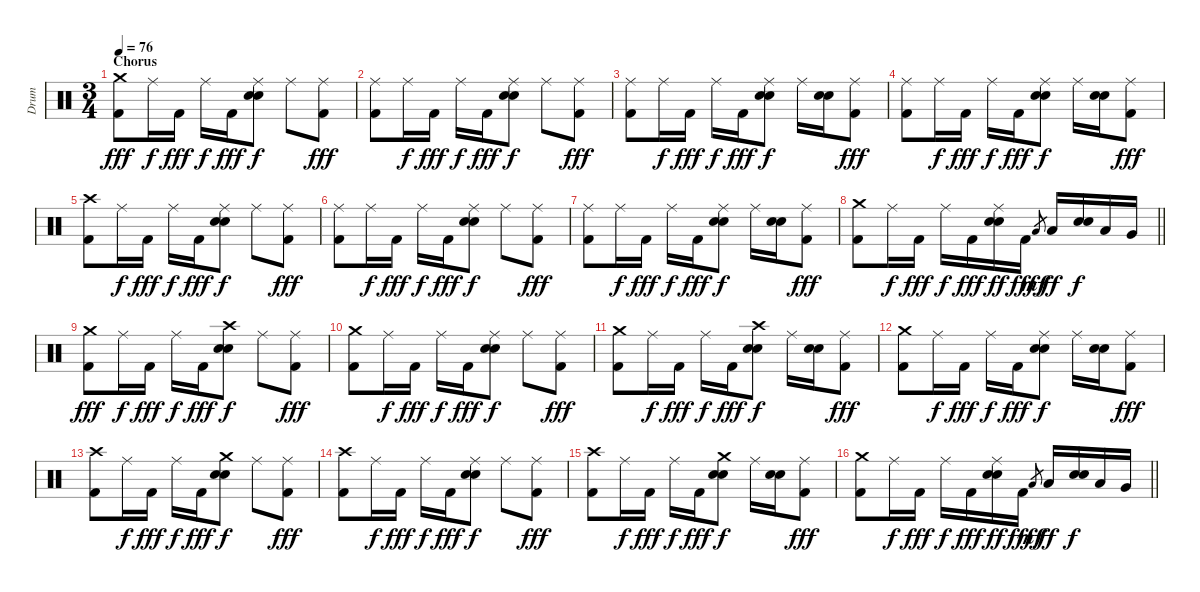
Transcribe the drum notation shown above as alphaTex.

\track ("Drum" "Drum") {instrument percussion}
\staff {score}
\articulation defaults
\ts (3 4)
\section ("" "Chorus")
\tempo 76
\clef neutral
\ks c
("Crash medium (hit)" "Kick (hit) 2").8{dy fff} "Ride (middle)".16{dy f} "Kick (hit) 2".16{dy fff} "Ride (middle)".16{dy f} "Kick (hit) 2".16{dy fff} ("Ride (middle)" "Snare (hit) 2" "Electric Snare (hit)").8{dy f} "Ride (middle)".8 ("Ride (middle)" "Kick (hit) 2").8{dy fff} |
("Ride (middle)" "Kick (hit) 2").8 "Ride (middle)".16{dy f} "Kick (hit) 2".16{dy fff} "Ride (middle)".16{dy f} "Kick (hit) 2".16{dy fff} ("Ride (middle)" "Snare (hit) 2" "Electric Snare (hit)").8{dy f} "Ride (middle)".8 ("Ride (middle)" "Kick (hit) 2").8{dy fff} |
("Ride (middle)" "Kick (hit) 2").8 "Ride (middle)".16{dy f} "Kick (hit) 2".16{dy fff} "Ride (middle)".16{dy f} "Kick (hit) 2".16{dy fff} ("Ride (middle)" "Snare (hit) 2" "Electric Snare (hit)").8{dy f} "Ride (middle)".16 ("Snare (hit) 2" "Electric Snare (hit)").16 ("Ride (middle)" "Kick (hit) 2").8{dy fff} |
("Ride (middle)" "Kick (hit) 2").8 "Ride (middle)".16{dy f} "Kick (hit) 2".16{dy fff} "Ride (middle)".16{dy f} "Kick (hit) 2".16{dy fff} ("Ride (middle)" "Snare (hit) 2" "Electric Snare (hit)").8{dy f} "Ride (middle)".16 ("Snare (hit) 2" "Electric Snare (hit)").16 ("Ride (middle)" "Kick (hit) 2").8{dy fff} |
("Crash high (hit)" "Kick (hit) 2").8 "Ride (middle)".16{dy f} "Kick (hit) 2".16{dy fff} "Ride (middle)".16{dy f} "Kick (hit) 2".16{dy fff} ("Ride (middle)" "Snare (hit) 2" "Electric Snare (hit)").8{dy f} "Ride (middle)".8 ("Ride (middle)" "Kick (hit) 2").8{dy fff} |
("Ride (middle)" "Kick (hit) 2").8 "Ride (middle)".16{dy f} "Kick (hit) 2".16{dy fff} "Ride (middle)".16{dy f} "Kick (hit) 2".16{dy fff} ("Ride (middle)" "Snare (hit) 2" "Electric Snare (hit)").8{dy f} "Ride (middle)".8 ("Ride (middle)" "Kick (hit) 2").8{dy fff} |
("Ride (middle)" "Kick (hit) 2").8 "Ride (middle)".16{dy f} "Kick (hit) 2".16{dy fff} "Ride (middle)".16{dy f} "Kick (hit) 2".16{dy fff} ("Ride (middle)" "Snare (hit) 2" "Electric Snare (hit)").8{dy f} "Ride (middle)".16 ("Snare (hit) 2" "Electric Snare (hit)").16 ("Ride (middle)" "Kick (hit) 2").8{dy fff} |
\barLineRight lightlight
("Crash medium (hit)" "Kick (hit) 2").8 "Ride (middle)".16{dy f} "Kick (hit) 2".16{dy fff} "Ride (middle)".16{dy f} "Kick (hit) 2".16{dy fff} ("Ride (middle)" "Snare (hit) 2" "Electric Snare (hit)").16{dy ff} "Kick (hit) 2".16{dy fff} "Low Tom (hit)".8{gr dy mf} "Low Tom (hit)".16{dy ff} ("Snare (hit) 2" "Electric Snare (hit)").16{dy f} "Low Tom (hit)".16 "Very Low Tom (hit)".16 |
\section ("" "")
("Crash medium (hit)" "Kick (hit) 2").8{dy fff} "Ride (middle)".16{dy f} "Kick (hit) 2".16{dy fff} "Ride (middle)".16{dy f} "Kick (hit) 2".16{dy fff} ("Crash high (hit)" "Snare (hit) 2" "Electric Snare (hit)").8{dy f} "Ride (middle)".8 ("Ride (middle)" "Kick (hit) 2").8{dy fff} |
("Crash medium (hit)" "Kick (hit) 2").8 "Ride (middle)".16{dy f} "Kick (hit) 2".16{dy fff} "Ride (middle)".16{dy f} "Kick (hit) 2".16{dy fff} ("Ride (middle)" "Snare (hit) 2" "Electric Snare (hit)").8{dy f} "Ride (middle)".8 ("Ride (middle)" "Kick (hit) 2").8{dy fff} |
("Crash medium (hit)" "Kick (hit) 2").8 "Ride (middle)".16{dy f} "Kick (hit) 2".16{dy fff} "Ride (middle)".16{dy f} "Kick (hit) 2".16{dy fff} ("Crash high (hit)" "Snare (hit) 2" "Electric Snare (hit)").8{dy f} "Ride (middle)".16 ("Snare (hit) 2" "Electric Snare (hit)").16 ("Ride (middle)" "Kick (hit) 2").8{dy fff} |
("Crash medium (hit)" "Kick (hit) 2").8 "Ride (middle)".16{dy f} "Kick (hit) 2".16{dy fff} "Ride (middle)".16{dy f} "Kick (hit) 2".16{dy fff} ("Ride (middle)" "Snare (hit) 2" "Electric Snare (hit)").8{dy f} "Ride (middle)".16 ("Snare (hit) 2" "Electric Snare (hit)").16 ("Ride (middle)" "Kick (hit) 2").8{dy fff} |
("Crash high (hit)" "Kick (hit) 2").8 "Ride (middle)".16{dy f} "Kick (hit) 2".16{dy fff} "Ride (middle)".16{dy f} "Kick (hit) 2".16{dy fff} ("Crash medium (hit)" "Snare (hit) 2" "Electric Snare (hit)").8{dy f} "Ride (middle)".8 ("Ride (middle)" "Kick (hit) 2").8{dy fff} |
("Crash high (hit)" "Kick (hit) 2").8 "Ride (middle)".16{dy f} "Kick (hit) 2".16{dy fff} "Ride (middle)".16{dy f} "Kick (hit) 2".16{dy fff} ("Ride (middle)" "Snare (hit) 2" "Electric Snare (hit)").8{dy f} "Ride (middle)".8 ("Ride (middle)" "Kick (hit) 2").8{dy fff} |
("Crash high (hit)" "Kick (hit) 2").8 "Ride (middle)".16{dy f} "Kick (hit) 2".16{dy fff} "Ride (middle)".16{dy f} "Kick (hit) 2".16{dy fff} ("Crash medium (hit)" "Snare (hit) 2" "Electric Snare (hit)").8{dy f} "Ride (middle)".16 ("Snare (hit) 2" "Electric Snare (hit)").16 ("Ride (middle)" "Kick (hit) 2").8{dy fff} |
\barLineRight lightlight
("Crash medium (hit)" "Kick (hit) 2").8 "Ride (middle)".16{dy f} "Kick (hit) 2".16{dy fff} "Ride (middle)".16{dy f} "Kick (hit) 2".16{dy fff} ("Ride (middle)" "Snare (hit) 2" "Electric Snare (hit)").16{dy ff} "Kick (hit) 2".16{dy fff} "Low Tom (hit)".8{gr dy mf} "Low Tom (hit)".16{dy ff} ("Snare (hit) 2" "Electric Snare (hit)").16{dy f} "Low Tom (hit)".16 "Very Low Tom (hit)".16
